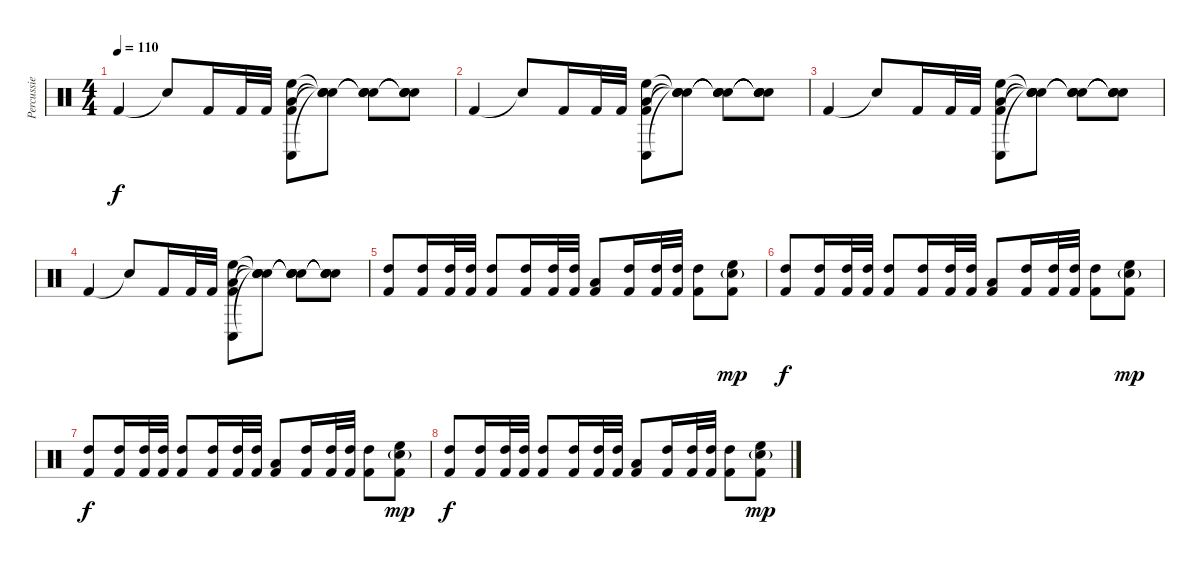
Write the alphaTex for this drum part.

\track ("Percussie" "Percussie") {instrument percussion}
\staff {score}
\articulation defaults
\ts (4 4)
\tempo 110
\clef neutral
\ks c "Kick (hit) 2".4{dy f} "Snare (hit)"{t}.8 "Kick (hit) 2".16 "Kick (hit) 2".32 "Kick (hit) 2".32
("Conga low (hit)" "Low Tom (hit)" "High Floor Tom (hit)" "Kick (hit) 2").8 ("Snare (hit)"{t} "Snare (hit)"{t} "Snare (hit)"{t} "Snare (hit)"{t}).8 ("Snare (hit)"{t} "Snare (hit)"{t} "Snare (hit)"{t} "Snare (hit)"{t}).8 ("Snare (hit)"{t} "Snare (hit)"{t} "Snare (hit)"{t} "Snare (hit)"{t}).8 |
"Kick (hit) 2".4 "Snare (hit)"{t}.8 "Kick (hit) 2".16 "Kick (hit) 2".32 "Kick (hit) 2".32 ("Conga low (hit)" "Low Tom (hit)" "High Floor Tom (hit)" "Kick (hit) 2").8 ("Snare (hit)"{t} "Snare (hit)"{t} "Snare (hit)"{t} "Snare (hit)"{t}).8 ("Snare (hit)"{t} "Snare (hit)"{t} "Snare (hit)"{t} "Snare (hit)"{t}).8 ("Snare (hit)"{t} "Snare (hit)"{t} "Snare (hit)"{t} "Snare (hit)"{t}).8 |
"Kick (hit) 2".4 "Snare (hit)"{t}.8 "Kick (hit) 2".16 "Kick (hit) 2".32 "Kick (hit) 2".32 ("Conga low (hit)" "Low Tom (hit)" "High Floor Tom (hit)" "Kick (hit) 2").8 ("Snare (hit)"{t} "Snare (hit)"{t} "Snare (hit)"{t} "Snare (hit)"{t}).8 ("Snare (hit)"{t} "Snare (hit)"{t} "Snare (hit)"{t} "Snare (hit)"{t}).8 ("Snare (hit)"{t} "Snare (hit)"{t} "Snare (hit)"{t} "Snare (hit)"{t}).8 |
"Kick (hit) 2".4 "Snare (hit)"{t}.8 "Kick (hit) 2".16 "Kick (hit) 2".32 "Kick (hit) 2".32 ("Conga low (hit)" "Low Tom (hit)" "High Floor Tom (hit)" "Kick (hit) 2").8 ("Snare (hit)"{t} "Snare (hit)"{t} "Snare (hit)"{t} "Snare (hit)"{t}).8 ("Snare (hit)"{t} "Snare (hit)"{t} "Snare (hit)"{t} "Snare (hit)"{t}).8 ("Snare (hit)"{t} "Snare (hit)"{t} "Snare (hit)"{t} "Snare (hit)"{t}).8 |
("High Tom (hit)" "Kick (hit) 2").8 ("High Tom (hit)" "Kick (hit) 2").16 ("High Tom (hit)" "Kick (hit) 2").32 ("High Tom (hit)" "Kick (hit) 2").32 ("High Tom (hit)" "Kick (hit) 2").8 ("High Tom (hit)" "Kick (hit) 2").16 ("High Tom (hit)" "Kick (hit) 2").32 ("High Tom (hit)" "Kick (hit) 2").32 ("Low Tom (hit)" "Kick (hit) 2").8 ("High Tom (hit)" "Kick (hit) 2").16 ("High Tom (hit)" "Kick (hit) 2").32 ("High Tom (hit)" "Kick (hit) 2").32 ("High Tom (hit)" "Kick (hit) 2").8 ("High Floor Tom (hit)" "Snare (hit) 2"{g} "Kick (hit) 2").8{dy mp} |
("High Tom (hit)" "Kick (hit) 2").8{dy f} ("High Tom (hit)" "Kick (hit) 2").16 ("High Tom (hit)" "Kick (hit) 2").32 ("High Tom (hit)" "Kick (hit) 2").32 ("High Tom (hit)" "Kick (hit) 2").8 ("High Tom (hit)" "Kick (hit) 2").16 ("High Tom (hit)" "Kick (hit) 2").32 ("High Tom (hit)" "Kick (hit) 2").32 ("Low Tom (hit)" "Kick (hit) 2").8 ("High Tom (hit)" "Kick (hit) 2").16 ("High Tom (hit)" "Kick (hit) 2").32 ("High Tom (hit)" "Kick (hit) 2").32 ("High Tom (hit)" "Kick (hit) 2").8 ("High Floor Tom (hit)" "Snare (hit) 2"{g} "Kick (hit) 2").8{dy mp} |
("High Tom (hit)" "Kick (hit) 2").8{dy f} ("High Tom (hit)" "Kick (hit) 2").16 ("High Tom (hit)" "Kick (hit) 2").32 ("High Tom (hit)" "Kick (hit) 2").32 ("High Tom (hit)" "Kick (hit) 2").8 ("High Tom (hit)" "Kick (hit) 2").16 ("High Tom (hit)" "Kick (hit) 2").32 ("High Tom (hit)" "Kick (hit) 2").32 ("Low Tom (hit)" "Kick (hit) 2").8 ("High Tom (hit)" "Kick (hit) 2").16 ("High Tom (hit)" "Kick (hit) 2").32 ("High Tom (hit)" "Kick (hit) 2").32 ("High Tom (hit)" "Kick (hit) 2").8 ("High Floor Tom (hit)" "Snare (hit) 2"{g} "Kick (hit) 2").8{dy mp} |
("High Tom (hit)" "Kick (hit) 2").8{dy f} ("High Tom (hit)" "Kick (hit) 2").16 ("High Tom (hit)" "Kick (hit) 2").32 ("High Tom (hit)" "Kick (hit) 2").32 ("High Tom (hit)" "Kick (hit) 2").8 ("High Tom (hit)" "Kick (hit) 2").16 ("High Tom (hit)" "Kick (hit) 2").32 ("High Tom (hit)" "Kick (hit) 2").32 ("Low Tom (hit)" "Kick (hit) 2").8 ("High Tom (hit)" "Kick (hit) 2").16 ("High Tom (hit)" "Kick (hit) 2").32 ("High Tom (hit)" "Kick (hit) 2").32 ("High Tom (hit)" "Kick (hit) 2").8 ("High Floor Tom (hit)" "Snare (hit) 2"{g} "Kick (hit) 2").8{dy mp}
